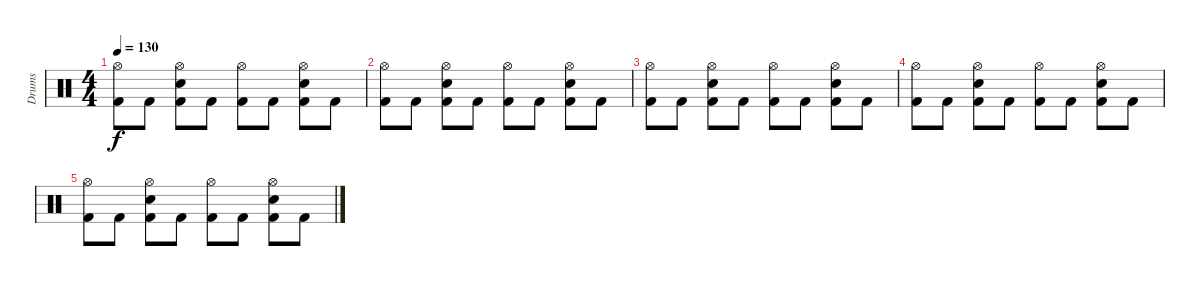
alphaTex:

\track ("Drums" "Drums") {instrument percussion}
\staff {score}
\articulation defaults
\ts (4 4)
\tempo 130
\clef neutral
\ks c
("Hi-Hat (open)" "Kick (hit) 2").8{dy f volume 6} "Kick (hit) 2".8 ("Hi-Hat (open)" "Electric Snare (hit)" "Kick (hit) 2").8 "Kick (hit) 2".8 ("Hi-Hat (open)" "Kick (hit) 2").8 "Kick (hit) 2".8 ("Hi-Hat (open)" "Electric Snare (hit)" "Kick (hit) 2").8 "Kick (hit) 2".8 |
("Hi-Hat (open)" "Kick (hit) 2").8 "Kick (hit) 2".8 ("Hi-Hat (open)" "Electric Snare (hit)" "Kick (hit) 2").8 "Kick (hit) 2".8 ("Hi-Hat (open)" "Kick (hit) 2").8 "Kick (hit) 2".8 ("Hi-Hat (open)" "Electric Snare (hit)" "Kick (hit) 2").8 "Kick (hit) 2".8 |
("Hi-Hat (open)" "Kick (hit) 2").8 "Kick (hit) 2".8 ("Hi-Hat (open)" "Electric Snare (hit)" "Kick (hit) 2").8 "Kick (hit) 2".8 ("Hi-Hat (open)" "Kick (hit) 2").8 "Kick (hit) 2".8 ("Hi-Hat (open)" "Electric Snare (hit)" "Kick (hit) 2").8 "Kick (hit) 2".8 |
("Hi-Hat (open)" "Kick (hit) 2").8 "Kick (hit) 2".8 ("Hi-Hat (open)" "Electric Snare (hit)" "Kick (hit) 2").8 "Kick (hit) 2".8 ("Hi-Hat (open)" "Kick (hit) 2").8 "Kick (hit) 2".8 ("Hi-Hat (open)" "Electric Snare (hit)" "Kick (hit) 2").8 "Kick (hit) 2".8 |
("Hi-Hat (open)" "Kick (hit) 2").8 "Kick (hit) 2".8 ("Hi-Hat (open)" "Electric Snare (hit)" "Kick (hit) 2").8 "Kick (hit) 2".8 ("Hi-Hat (open)" "Kick (hit) 2").8 "Kick (hit) 2".8 ("Hi-Hat (open)" "Electric Snare (hit)" "Kick (hit) 2").8 "Kick (hit) 2".8
